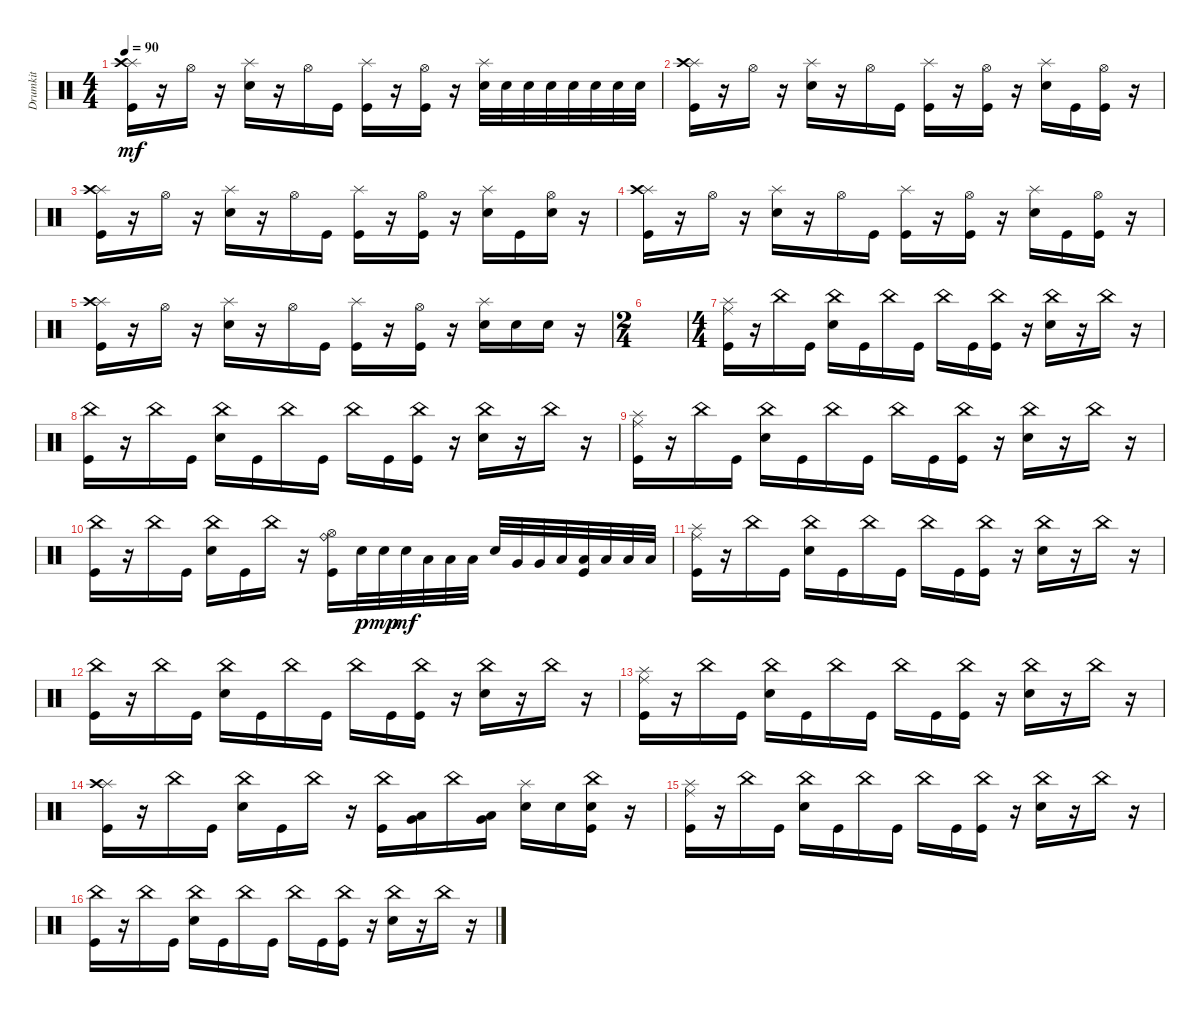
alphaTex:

\track ("Drumkit" "Drumkit") {instrument percussion}
\staff {score}
\articulation defaults
\ts (4 4)
\tempo 90
\clef neutral
\ks c
("Kick (hit)" "Splash (hit)" "Crash high (hit)").16{dy mf} r.16 "Hi-Hat (open)".16 r.16 ("Snare (hit) 2" "Splash (hit)").16 r.16 "Hi-Hat (open)".16 "Kick (hit)".16 ("Kick (hit)" "Splash (hit)").16 r.16 ("Kick (hit)" "Hi-Hat (open)").16 r.16 ("Snare (hit) 2" "Splash (hit)").32 "Snare (hit) 2".32 "Snare (hit) 2".32 "Snare (hit) 2".32 "Snare (hit) 2".32 "Snare (hit) 2".32 "Snare (hit) 2".32 "Snare (hit) 2".32 |
("Kick (hit)" "Splash (hit)" "Crash high (hit)").16 r.16 "Hi-Hat (open)".16 r.16 ("Snare (hit) 2" "Splash (hit)").16 r.16 "Hi-Hat (open)".16 "Kick (hit)".16 ("Kick (hit)" "Splash (hit)").16 r.16 ("Kick (hit)" "Hi-Hat (open)").16 r.16 ("Snare (hit) 2" "Splash (hit)").16 "Kick (hit)".16 ("Kick (hit)" "Hi-Hat (open)").16 r.16 |
("Kick (hit)" "Splash (hit)" "Crash high (hit)").16 r.16 "Hi-Hat (open)".16 r.16 ("Snare (hit) 2" "Splash (hit)").16 r.16 "Hi-Hat (open)".16 "Kick (hit)".16 ("Kick (hit)" "Splash (hit)").16 r.16 ("Kick (hit)" "Hi-Hat (open)").16 r.16 ("Snare (hit) 2" "Splash (hit)").16 "Kick (hit)".16 ("Snare (hit) 2" "Hi-Hat (open)").16 r.16 |
("Kick (hit)" "Splash (hit)" "Crash high (hit)").16 r.16 "Hi-Hat (open)".16 r.16 ("Snare (hit) 2" "Splash (hit)").16 r.16 "Hi-Hat (open)".16 "Kick (hit)".16 ("Kick (hit)" "Splash (hit)").16 r.16 ("Kick (hit)" "Hi-Hat (open)").16 r.16 ("Snare (hit) 2" "Splash (hit)").16 "Kick (hit)".16 ("Kick (hit)" "Hi-Hat (open)").16 r.16 |
("Kick (hit)" "Splash (hit)" "Crash high (hit)").16 r.16 "Hi-Hat (open)".16 r.16 ("Snare (hit) 2" "Splash (hit)").16 r.16 "Hi-Hat (open)".16 "Kick (hit)".16 ("Kick (hit)" "Splash (hit)").16 r.16 ("Kick (hit)" "Hi-Hat (open)").16 r.16 ("Snare (hit) 2" "Splash (hit)").16 "Snare (hit) 2".16 "Snare (hit) 2".16 r.16 |
\ts (2 4)
|
\ts (4 4)
("Kick (hit)" "Splash (hit)" "Ride (middle)").16 r.16 "China (hit)".16 "Kick (hit)".16 ("Snare (hit) 2" "China (hit)").16 "Kick (hit)".16 "China (hit)".16 "Kick (hit)".16 "China (hit)".16 "Kick (hit)".16 ("Kick (hit)" "China (hit)").16 r.16 ("Snare (hit) 2" "China (hit)").16 r.16 "China (hit)".16 r.16 |
("Kick (hit)" "China (hit)").16 r.16 "China (hit)".16 "Kick (hit)".16 ("Snare (hit) 2" "China (hit)").16 "Kick (hit)".16 "China (hit)".16 "Kick (hit)".16 "China (hit)".16 "Kick (hit)".16 ("Kick (hit)" "China (hit)").16 r.16 ("Snare (hit) 2" "China (hit)").16 r.16 "China (hit)".16 r.16 |
("Kick (hit)" "Splash (hit)" "Ride (middle)").16 r.16 "China (hit)".16 "Kick (hit)".16 ("Snare (hit) 2" "China (hit)").16 "Kick (hit)".16 "China (hit)".16 "Kick (hit)".16 "China (hit)".16 "Kick (hit)".16 ("Kick (hit)" "China (hit)").16 r.16 ("Snare (hit) 2" "China (hit)").16 r.16 "China (hit)".16 r.16 |
("Kick (hit)" "China (hit)").16 r.16 "China (hit)".16 "Kick (hit)".16 ("Snare (hit) 2" "China (hit)").16 "Kick (hit)".16 "China (hit)".16 r.16 ("Kick (hit)" "Hi-Hat (open)" "Ride (bell)").16 "Snare (hit) 2".32{dy p} "Snare (hit) 2".32{dy mp} "Snare (hit) 2".32{dy mf} "Low Tom (hit)".32 "Low Tom (hit)".32 "Low Floor Tom (hit)".32 "Snare (hit) 2".32 "Very Low Tom (hit)".32 "Very Low Tom (hit)".32 "Low Floor Tom (hit)".32 ("Low Tom (hit)" "Kick (hit)").32 "Low Floor Tom (hit)".32 "Low Floor Tom (hit)".32 "Low Floor Tom (hit)".32 |
("Kick (hit)" "Splash (hit)" "Ride (middle)").16 r.16 "China (hit)".16 "Kick (hit)".16 ("Snare (hit) 2" "China (hit)").16 "Kick (hit)".16 "China (hit)".16 "Kick (hit)".16 "China (hit)".16 "Kick (hit)".16 ("Kick (hit)" "China (hit)").16 r.16 ("Snare (hit) 2" "China (hit)").16 r.16 "China (hit)".16 r.16 |
("Kick (hit)" "China (hit)").16 r.16 "China (hit)".16 "Kick (hit)".16 ("Snare (hit) 2" "China (hit)").16 "Kick (hit)".16 "China (hit)".16 "Kick (hit)".16 "China (hit)".16 "Kick (hit)".16 ("Kick (hit)" "China (hit)").16 r.16 ("Snare (hit) 2" "China (hit)").16 r.16 "China (hit)".16 r.16 |
("Kick (hit)" "Splash (hit)" "Ride (middle)").16 r.16 "China (hit)".16 "Kick (hit)".16 ("Snare (hit) 2" "China (hit)").16 "Kick (hit)".16 "China (hit)".16 "Kick (hit)".16 "China (hit)".16 "Kick (hit)".16 ("Kick (hit)" "China (hit)").16 r.16 ("Snare (hit) 2" "China (hit)").16 r.16 "China (hit)".16 r.16 |
("Kick (hit)" "Splash (hit)" "Crash high (hit)").16 r.16 "China (hit)".16 "Kick (hit)".16 ("Snare (hit) 2" "China (hit)").16 "Kick (hit)".16 "China (hit)".16 r.16 ("Kick (hit)" "China (hit)").16 ("Low Tom (hit)" "Very Low Tom (hit)").16 "China (hit)".16 ("Very Low Tom (hit)" "Low Floor Tom (hit)").16 ("Snare (hit) 2" "Splash (hit)").16 "Snare (hit) 2".16 ("Kick (hit)" "Snare (hit) 2" "China (hit)").16 r.16 |
("Kick (hit)" "Splash (hit)" "Ride (middle)").16 r.16 "China (hit)".16 "Kick (hit)".16 ("Snare (hit) 2" "China (hit)").16 "Kick (hit)".16 "China (hit)".16 "Kick (hit)".16 "China (hit)".16 "Kick (hit)".16 ("Kick (hit)" "China (hit)").16 r.16 ("Snare (hit) 2" "China (hit)").16 r.16 "China (hit)".16 r.16 |
("Kick (hit)" "China (hit)").16 r.16 "China (hit)".16 "Kick (hit)".16 ("Snare (hit) 2" "China (hit)").16 "Kick (hit)".16 "China (hit)".16 "Kick (hit)".16 "China (hit)".16 "Kick (hit)".16 ("Kick (hit)" "China (hit)").16 r.16 ("Snare (hit) 2" "China (hit)").16 r.16 "China (hit)".16 r.16
